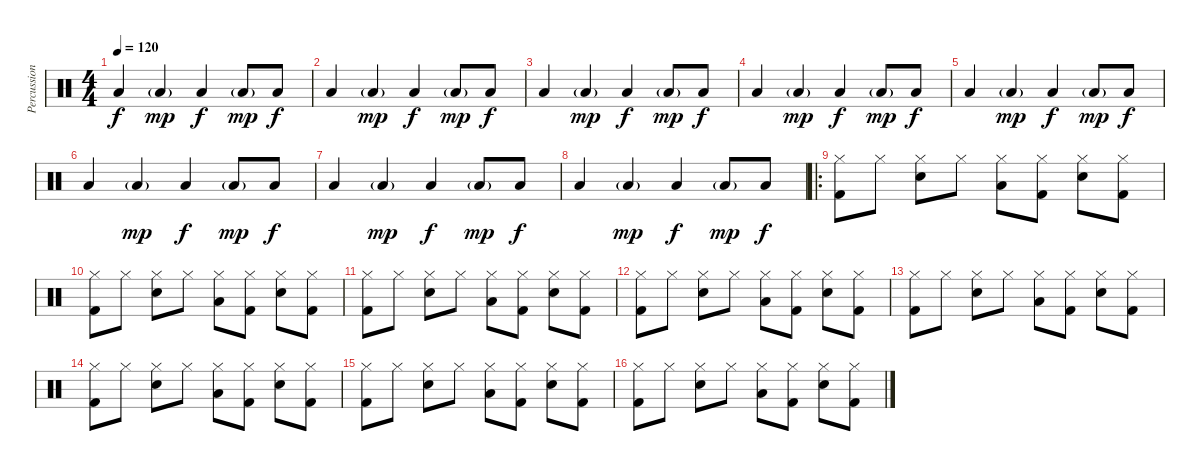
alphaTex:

\track ("Percussions" "Percussion") {instrument percussion}
\staff {score}
\articulation defaults
\ts (4 4)
\tempo 120
\clef neutral
\ks c "Low Tom (hit)".4{dy f} "Low Tom (hit)"{g}.4{dy mp} "Low Tom (hit)".4{dy f} "Low Tom (hit)"{g}.8{dy mp} "Low Tom (hit)".8{dy f}
|
"Low Tom (hit)".4 "Low Tom (hit)"{g}.4{dy mp} "Low Tom (hit)".4{dy f} "Low Tom (hit)"{g}.8{dy mp} "Low Tom (hit)".8{dy f} |
"Low Tom (hit)".4 "Low Tom (hit)"{g}.4{dy mp} "Low Tom (hit)".4{dy f} "Low Tom (hit)"{g}.8{dy mp} "Low Tom (hit)".8{dy f} |
"Low Tom (hit)".4 "Low Tom (hit)"{g}.4{dy mp} "Low Tom (hit)".4{dy f} "Low Tom (hit)"{g}.8{dy mp} "Low Tom (hit)".8{dy f} |
"Low Tom (hit)".4 "Low Tom (hit)"{g}.4{dy mp} "Low Tom (hit)".4{dy f} "Low Tom (hit)"{g}.8{dy mp} "Low Tom (hit)".8{dy f} |
"Low Tom (hit)".4 "Low Tom (hit)"{g}.4{dy mp} "Low Tom (hit)".4{dy f} "Low Tom (hit)"{g}.8{dy mp} "Low Tom (hit)".8{dy f} |
"Low Tom (hit)".4 "Low Tom (hit)"{g}.4{dy mp} "Low Tom (hit)".4{dy f} "Low Tom (hit)"{g}.8{dy mp} "Low Tom (hit)".8{dy f} |
"Low Tom (hit)".4 "Low Tom (hit)"{g}.4{dy mp} "Low Tom (hit)".4{dy f} "Low Tom (hit)"{g}.8{dy mp} "Low Tom (hit)".8{dy f} |
\ro
("Hi-Hat (closed)" "Kick (hit) 2").8 "Hi-Hat (closed)".8 ("Hi-Hat (closed)" "Snare (hit) 2").8 "Hi-Hat (closed)".8 ("Hi-Hat (closed)" "Low Tom (hit)").8 ("Hi-Hat (closed)" "Kick (hit) 2").8 ("Hi-Hat (closed)" "Snare (hit) 2").8 ("Hi-Hat (closed)" "Kick (hit) 2").8 |
("Hi-Hat (closed)" "Kick (hit) 2").8 "Hi-Hat (closed)".8 ("Hi-Hat (closed)" "Snare (hit) 2").8 "Hi-Hat (closed)".8 ("Hi-Hat (closed)" "Low Tom (hit)").8 ("Hi-Hat (closed)" "Kick (hit) 2").8 ("Hi-Hat (closed)" "Snare (hit) 2").8 ("Hi-Hat (closed)" "Kick (hit) 2").8 |
("Hi-Hat (closed)" "Kick (hit) 2").8 "Hi-Hat (closed)".8 ("Hi-Hat (closed)" "Snare (hit) 2").8 "Hi-Hat (closed)".8 ("Hi-Hat (closed)" "Low Tom (hit)").8 ("Hi-Hat (closed)" "Kick (hit) 2").8 ("Hi-Hat (closed)" "Snare (hit) 2").8 ("Hi-Hat (closed)" "Kick (hit) 2").8 |
("Hi-Hat (closed)" "Kick (hit) 2").8 "Hi-Hat (closed)".8 ("Hi-Hat (closed)" "Snare (hit) 2").8 "Hi-Hat (closed)".8 ("Hi-Hat (closed)" "Low Tom (hit)").8 ("Hi-Hat (closed)" "Kick (hit) 2").8 ("Hi-Hat (closed)" "Snare (hit) 2").8 ("Hi-Hat (closed)" "Kick (hit) 2").8 |
("Hi-Hat (closed)" "Kick (hit) 2").8 "Hi-Hat (closed)".8 ("Hi-Hat (closed)" "Snare (hit) 2").8 "Hi-Hat (closed)".8 ("Hi-Hat (closed)" "Low Tom (hit)").8 ("Hi-Hat (closed)" "Kick (hit) 2").8 ("Hi-Hat (closed)" "Snare (hit) 2").8 ("Hi-Hat (closed)" "Kick (hit) 2").8 |
("Hi-Hat (closed)" "Kick (hit) 2").8 "Hi-Hat (closed)".8 ("Hi-Hat (closed)" "Snare (hit) 2").8 "Hi-Hat (closed)".8 ("Hi-Hat (closed)" "Low Tom (hit)").8 ("Hi-Hat (closed)" "Kick (hit) 2").8 ("Hi-Hat (closed)" "Snare (hit) 2").8 ("Hi-Hat (closed)" "Kick (hit) 2").8 |
("Hi-Hat (closed)" "Kick (hit) 2").8 "Hi-Hat (closed)".8 ("Hi-Hat (closed)" "Snare (hit) 2").8 "Hi-Hat (closed)".8 ("Hi-Hat (closed)" "Low Tom (hit)").8 ("Hi-Hat (closed)" "Kick (hit) 2").8 ("Hi-Hat (closed)" "Snare (hit) 2").8 ("Hi-Hat (closed)" "Kick (hit) 2").8 |
("Hi-Hat (closed)" "Kick (hit) 2").8 "Hi-Hat (closed)".8 ("Hi-Hat (closed)" "Snare (hit) 2").8 "Hi-Hat (closed)".8 ("Hi-Hat (closed)" "Low Tom (hit)").8 ("Hi-Hat (closed)" "Kick (hit) 2").8 ("Hi-Hat (closed)" "Snare (hit) 2").8 ("Hi-Hat (closed)" "Kick (hit) 2").8
